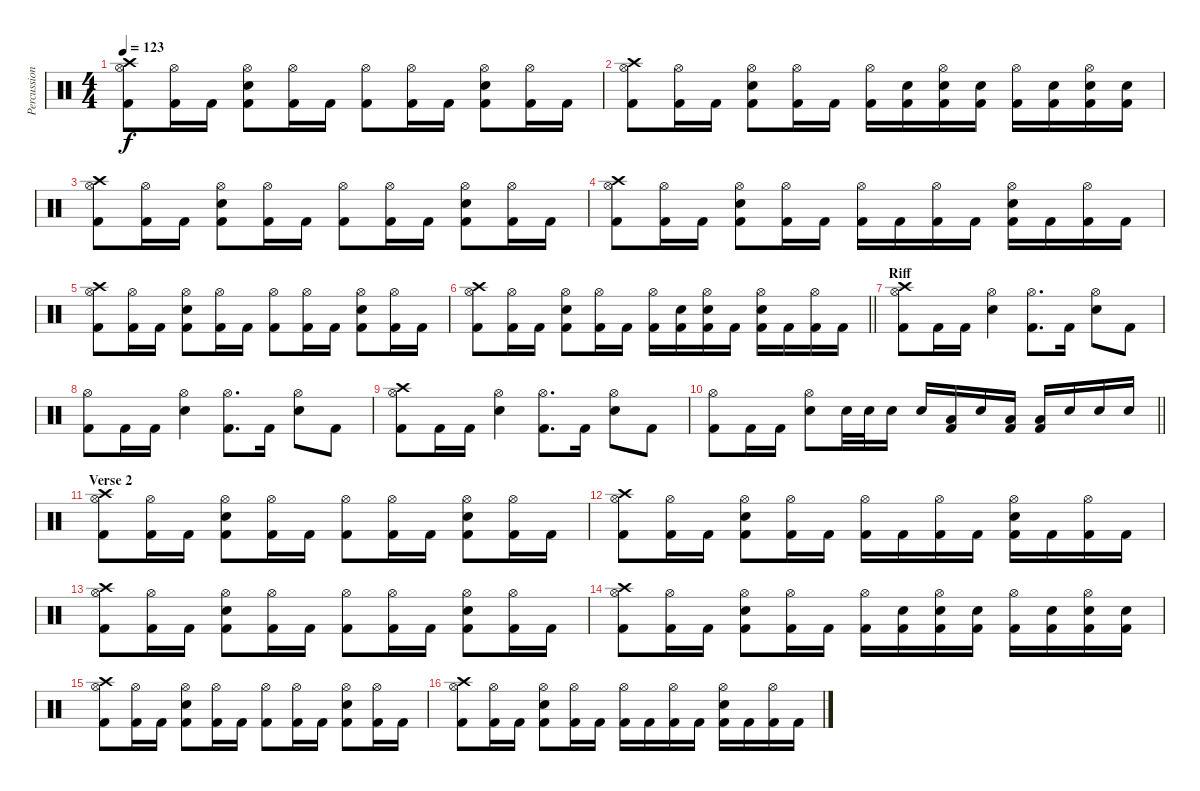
\track ("Percussion" "Percussion") {instrument percussion}
\staff {score}
\articulation defaults
\ts (4 4)
\tempo 123
\clef neutral
\ks c
("Hi-Hat (open)" "Kick (hit) 2" "Crash high (hit)").8{dy f} ("Hi-Hat (open)" "Kick (hit) 2").16 "Kick (hit) 2".16 ("Hi-Hat (open)" "Snare (hit) 2" "Kick (hit) 2").8 ("Hi-Hat (open)" "Kick (hit) 2").16 "Kick (hit) 2".16 ("Hi-Hat (open)" "Kick (hit) 2").8 ("Hi-Hat (open)" "Kick (hit) 2").16 "Kick (hit) 2".16 ("Hi-Hat (open)" "Snare (hit) 2" "Kick (hit) 2").8 ("Hi-Hat (open)" "Kick (hit) 2").16 "Kick (hit) 2".16 |
("Hi-Hat (open)" "Kick (hit) 2" "Crash high (hit)").8 ("Hi-Hat (open)" "Kick (hit) 2").16 "Kick (hit) 2".16 ("Hi-Hat (open)" "Snare (hit) 2" "Kick (hit) 2").8 ("Hi-Hat (open)" "Kick (hit) 2").16 "Kick (hit) 2".16 ("Hi-Hat (open)" "Kick (hit) 2").16 ("Snare (hit) 2" "Kick (hit) 2").16 ("Hi-Hat (open)" "Snare (hit) 2" "Kick (hit) 2").16 ("Snare (hit) 2" "Kick (hit) 2").16 ("Hi-Hat (open)" "Kick (hit) 2").16 ("Snare (hit) 2" "Kick (hit) 2").16 ("Hi-Hat (open)" "Snare (hit) 2" "Kick (hit) 2").16 ("Snare (hit) 2" "Kick (hit) 2").16 |
("Hi-Hat (open)" "Kick (hit) 2" "Crash high (hit)").8 ("Hi-Hat (open)" "Kick (hit) 2").16 "Kick (hit) 2".16 ("Hi-Hat (open)" "Snare (hit) 2" "Kick (hit) 2").8 ("Hi-Hat (open)" "Kick (hit) 2").16 "Kick (hit) 2".16 ("Hi-Hat (open)" "Kick (hit) 2").8 ("Hi-Hat (open)" "Kick (hit) 2").16 "Kick (hit) 2".16 ("Hi-Hat (open)" "Snare (hit) 2" "Kick (hit) 2").8 ("Hi-Hat (open)" "Kick (hit) 2").16 "Kick (hit) 2".16 |
("Hi-Hat (open)" "Kick (hit) 2" "Crash high (hit)").8 ("Hi-Hat (open)" "Kick (hit) 2").16 "Kick (hit) 2".16 ("Hi-Hat (open)" "Snare (hit) 2" "Kick (hit) 2").8 ("Hi-Hat (open)" "Kick (hit) 2").16 "Kick (hit) 2".16 ("Hi-Hat (open)" "Kick (hit) 2").16 "Kick (hit) 2".16 ("Hi-Hat (open)" "Kick (hit) 2").16 "Kick (hit) 2".16 ("Hi-Hat (open)" "Snare (hit) 2" "Kick (hit) 2").16 "Kick (hit) 2".16 ("Hi-Hat (open)" "Kick (hit) 2").16 "Kick (hit) 2".16 |
("Hi-Hat (open)" "Kick (hit) 2" "Crash high (hit)").8 ("Hi-Hat (open)" "Kick (hit) 2").16 "Kick (hit) 2".16 ("Hi-Hat (open)" "Snare (hit) 2" "Kick (hit) 2").8 ("Hi-Hat (open)" "Kick (hit) 2").16 "Kick (hit) 2".16 ("Hi-Hat (open)" "Kick (hit) 2").8 ("Hi-Hat (open)" "Kick (hit) 2").16 "Kick (hit) 2".16 ("Hi-Hat (open)" "Snare (hit) 2" "Kick (hit) 2").8 ("Hi-Hat (open)" "Kick (hit) 2").16 "Kick (hit) 2".16 |
\barLineRight lightlight
("Hi-Hat (open)" "Kick (hit) 2" "Crash high (hit)").8 ("Hi-Hat (open)" "Kick (hit) 2").16 "Kick (hit) 2".16 ("Hi-Hat (open)" "Snare (hit) 2" "Kick (hit) 2").8 ("Hi-Hat (open)" "Kick (hit) 2").16 "Kick (hit) 2".16 ("Hi-Hat (open)" "Kick (hit) 2").16 ("Snare (hit) 2" "Kick (hit) 2").16 ("Hi-Hat (open)" "Snare (hit) 2" "Kick (hit) 2").16 "Kick (hit) 2".16 ("Hi-Hat (open)" "Snare (hit) 2" "Kick (hit) 2").16 "Kick (hit) 2".16 ("Hi-Hat (open)" "Kick (hit) 2").16 "Kick (hit) 2".16 |
\section ("" "Riff")
("Hi-Hat (open)" "Kick (hit) 2" "Crash high (hit)").8 "Kick (hit) 2".16 "Kick (hit) 2".16 ("Hi-Hat (open)" "Snare (hit) 2").4 ("Hi-Hat (open)" "Kick (hit) 2").8{d} "Kick (hit) 2".16 ("Hi-Hat (open)" "Snare (hit) 2").8 "Kick (hit) 2".8 |
("Hi-Hat (open)" "Kick (hit) 2").8 "Kick (hit) 2".16 "Kick (hit) 2".16 ("Hi-Hat (open)" "Snare (hit) 2").4 ("Hi-Hat (open)" "Kick (hit) 2").8{d} "Kick (hit) 2".16 ("Hi-Hat (open)" "Snare (hit) 2").8 "Kick (hit) 2".8 |
("Hi-Hat (open)" "Kick (hit) 2" "Crash high (hit)").8 "Kick (hit) 2".16 "Kick (hit) 2".16 ("Hi-Hat (open)" "Snare (hit) 2").4 ("Hi-Hat (open)" "Kick (hit) 2").8{d} "Kick (hit) 2".16 ("Hi-Hat (open)" "Snare (hit) 2").8 "Kick (hit) 2".8 |
\barLineRight lightlight
("Hi-Hat (open)" "Kick (hit) 2").8 "Kick (hit) 2".16 "Kick (hit) 2".16 ("Hi-Hat (open)" "Snare (hit) 2").8 "Snare (hit) 2".32 "Snare (hit) 2".32 "Snare (hit) 2".16 "Snare (hit) 2".16 ("Low Floor Tom (hit)" "Kick (hit) 2").16 "Snare (hit) 2".16 ("Low Floor Tom (hit)" "Kick (hit) 2").16 ("Low Floor Tom (hit)" "Kick (hit) 2").16 "Snare (hit) 2".16 "Snare (hit) 2".16 "Snare (hit) 2".16 |
\section ("" "Verse 2")
("Hi-Hat (open)" "Kick (hit) 2" "Crash high (hit)").8 ("Hi-Hat (open)" "Kick (hit) 2").16 "Kick (hit) 2".16 ("Hi-Hat (open)" "Snare (hit) 2" "Kick (hit) 2").8 ("Hi-Hat (open)" "Kick (hit) 2").16 "Kick (hit) 2".16 ("Hi-Hat (open)" "Kick (hit) 2").8 ("Hi-Hat (open)" "Kick (hit) 2").16 "Kick (hit) 2".16 ("Hi-Hat (open)" "Snare (hit) 2" "Kick (hit) 2").8 ("Hi-Hat (open)" "Kick (hit) 2").16 "Kick (hit) 2".16 |
("Hi-Hat (open)" "Kick (hit) 2" "Crash high (hit)").8 ("Hi-Hat (open)" "Kick (hit) 2").16 "Kick (hit) 2".16 ("Hi-Hat (open)" "Snare (hit) 2" "Kick (hit) 2").8 ("Hi-Hat (open)" "Kick (hit) 2").16 "Kick (hit) 2".16 ("Hi-Hat (open)" "Kick (hit) 2").16 "Kick (hit) 2".16 ("Hi-Hat (open)" "Kick (hit) 2").16 "Kick (hit) 2".16 ("Hi-Hat (open)" "Snare (hit) 2" "Kick (hit) 2").16 "Kick (hit) 2".16 ("Hi-Hat (open)" "Kick (hit) 2").16 "Kick (hit) 2".16 |
("Hi-Hat (open)" "Kick (hit) 2" "Crash high (hit)").8 ("Hi-Hat (open)" "Kick (hit) 2").16 "Kick (hit) 2".16 ("Hi-Hat (open)" "Snare (hit) 2" "Kick (hit) 2").8 ("Hi-Hat (open)" "Kick (hit) 2").16 "Kick (hit) 2".16 ("Hi-Hat (open)" "Kick (hit) 2").8 ("Hi-Hat (open)" "Kick (hit) 2").16 "Kick (hit) 2".16 ("Hi-Hat (open)" "Snare (hit) 2" "Kick (hit) 2").8 ("Hi-Hat (open)" "Kick (hit) 2").16 "Kick (hit) 2".16 |
("Hi-Hat (open)" "Kick (hit) 2" "Crash high (hit)").8 ("Hi-Hat (open)" "Kick (hit) 2").16 "Kick (hit) 2".16 ("Hi-Hat (open)" "Snare (hit) 2" "Kick (hit) 2").8 ("Hi-Hat (open)" "Kick (hit) 2").16 "Kick (hit) 2".16 ("Hi-Hat (open)" "Kick (hit) 2").16 ("Snare (hit) 2" "Kick (hit) 2").16 ("Hi-Hat (open)" "Snare (hit) 2" "Kick (hit) 2").16 ("Snare (hit) 2" "Kick (hit) 2").16 ("Hi-Hat (open)" "Kick (hit) 2").16 ("Snare (hit) 2" "Kick (hit) 2").16 ("Hi-Hat (open)" "Snare (hit) 2" "Kick (hit) 2").16 ("Snare (hit) 2" "Kick (hit) 2").16 |
("Hi-Hat (open)" "Kick (hit) 2" "Crash high (hit)").8 ("Hi-Hat (open)" "Kick (hit) 2").16 "Kick (hit) 2".16 ("Hi-Hat (open)" "Snare (hit) 2" "Kick (hit) 2").8 ("Hi-Hat (open)" "Kick (hit) 2").16 "Kick (hit) 2".16 ("Hi-Hat (open)" "Kick (hit) 2").8 ("Hi-Hat (open)" "Kick (hit) 2").16 "Kick (hit) 2".16 ("Hi-Hat (open)" "Snare (hit) 2" "Kick (hit) 2").8 ("Hi-Hat (open)" "Kick (hit) 2").16 "Kick (hit) 2".16 |
("Hi-Hat (open)" "Kick (hit) 2" "Crash high (hit)").8 ("Hi-Hat (open)" "Kick (hit) 2").16 "Kick (hit) 2".16 ("Hi-Hat (open)" "Snare (hit) 2" "Kick (hit) 2").8 ("Hi-Hat (open)" "Kick (hit) 2").16 "Kick (hit) 2".16 ("Hi-Hat (open)" "Kick (hit) 2").16 "Kick (hit) 2".16 ("Hi-Hat (open)" "Kick (hit) 2").16 "Kick (hit) 2".16 ("Hi-Hat (open)" "Snare (hit) 2" "Kick (hit) 2").16 "Kick (hit) 2".16 ("Hi-Hat (open)" "Kick (hit) 2").16 "Kick (hit) 2".16
